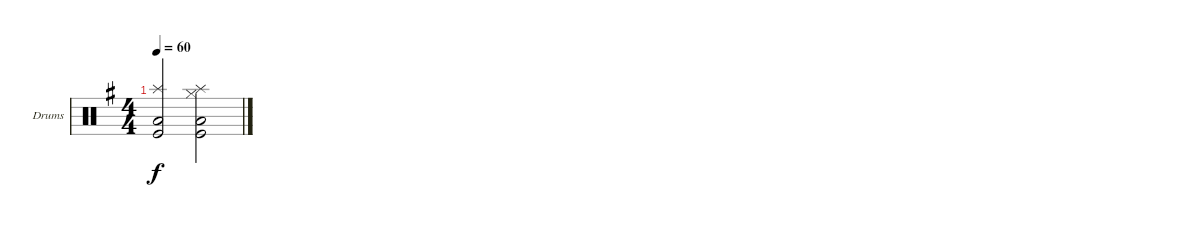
\defaultSystemsLayout 4
\bracketExtendMode groupsimilarinstruments
\firstSystemTrackNameOrientation horizontal
\otherSystemsTrackNameOrientation horizontal
\track ("Drumkit (Darrell Sweet)" "Drums") {instrument percussion}
\staff {score}
\articulation defaults
\ts (4 4)
\tempo 60
\clef neutral
\ks eminor
("Low Tom (hit)" "Splash (hit)" "Kick (hit)").2{dy f} ("Hi-Hat (closed)" "Low Tom (hit)" "Kick (hit)" "Splash (hit)").2
